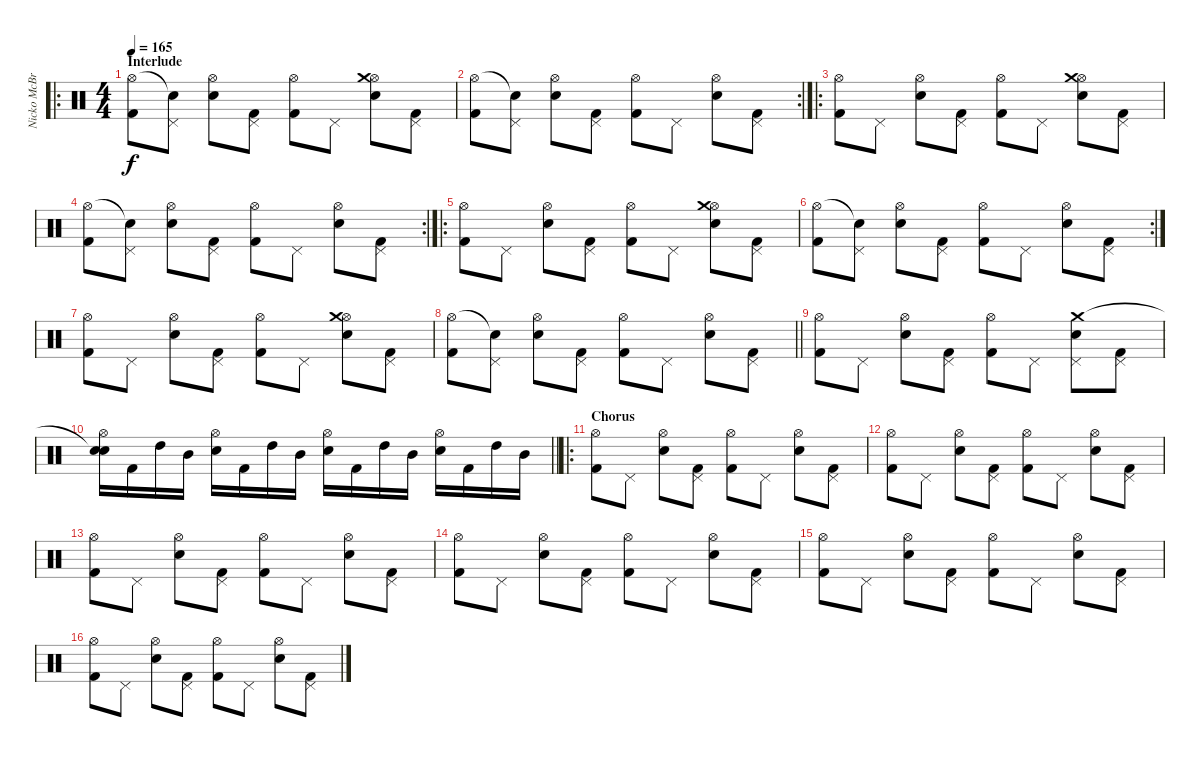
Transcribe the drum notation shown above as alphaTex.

\track ("Nicko McBrain" "Nicko McBr") {instrument percussion}
\staff {score}
\articulation defaults
\ro
\ts (4 4)
\section ("" "Interlude")
\tempo 165
\clef neutral
\ks c
("Kick (hit) 2" "Hi-Hat (open)").8{dy f} ("Pedal Hi-Hat (hit)" "Snare (hit)"{t}).8 ("Snare (hit) 2" "Hi-Hat (open)").8 ("Kick (hit) 2" "Pedal Hi-Hat (hit)").8 ("Kick (hit) 2" "Hi-Hat (open)").8 "Pedal Hi-Hat (hit)".8 ("Snare (hit) 2" "Hi-Hat (open)" "Crash medium (hit)").8 ("Kick (hit) 2" "Pedal Hi-Hat (hit)").8 |
\rc 2
("Kick (hit) 2" "Hi-Hat (open)").8 ("Pedal Hi-Hat (hit)" "Snare (hit)"{t}).8 ("Snare (hit) 2" "Hi-Hat (open)").8 ("Kick (hit) 2" "Pedal Hi-Hat (hit)").8 ("Kick (hit) 2" "Hi-Hat (open)").8 "Pedal Hi-Hat (hit)".8 ("Snare (hit) 2" "Hi-Hat (open)").8 ("Kick (hit) 2" "Pedal Hi-Hat (hit)").8 |
\ro
("Kick (hit) 2" "Hi-Hat (open)").8 "Pedal Hi-Hat (hit)".8 ("Snare (hit) 2" "Hi-Hat (open)").8 ("Kick (hit) 2" "Pedal Hi-Hat (hit)").8 ("Kick (hit) 2" "Hi-Hat (open)").8 "Pedal Hi-Hat (hit)".8 ("Snare (hit) 2" "Hi-Hat (open)" "Crash medium (hit)").8 ("Kick (hit) 2" "Pedal Hi-Hat (hit)").8 |
\rc 2
("Kick (hit) 2" "Hi-Hat (open)").8 ("Pedal Hi-Hat (hit)" "Snare (hit)"{t}).8 ("Snare (hit) 2" "Hi-Hat (open)").8 ("Kick (hit) 2" "Pedal Hi-Hat (hit)").8 ("Kick (hit) 2" "Hi-Hat (open)").8 "Pedal Hi-Hat (hit)".8 ("Snare (hit) 2" "Hi-Hat (open)").8 ("Kick (hit) 2" "Pedal Hi-Hat (hit)").8 |
\ro
("Kick (hit) 2" "Hi-Hat (open)").8 "Pedal Hi-Hat (hit)".8 ("Snare (hit) 2" "Hi-Hat (open)").8 ("Kick (hit) 2" "Pedal Hi-Hat (hit)").8 ("Kick (hit) 2" "Hi-Hat (open)").8 "Pedal Hi-Hat (hit)".8 ("Snare (hit) 2" "Hi-Hat (open)" "Crash medium (hit)").8 ("Kick (hit) 2" "Pedal Hi-Hat (hit)").8 |
\rc 2
("Kick (hit) 2" "Hi-Hat (open)").8 ("Pedal Hi-Hat (hit)" "Snare (hit)"{t}).8 ("Snare (hit) 2" "Hi-Hat (open)").8 ("Kick (hit) 2" "Pedal Hi-Hat (hit)").8 ("Kick (hit) 2" "Hi-Hat (open)").8 "Pedal Hi-Hat (hit)".8 ("Snare (hit) 2" "Hi-Hat (open)").8 ("Kick (hit) 2" "Pedal Hi-Hat (hit)").8 |
("Kick (hit) 2" "Hi-Hat (open)").8 "Pedal Hi-Hat (hit)".8 ("Snare (hit) 2" "Hi-Hat (open)").8 ("Kick (hit) 2" "Pedal Hi-Hat (hit)").8 ("Kick (hit) 2" "Hi-Hat (open)").8 "Pedal Hi-Hat (hit)".8 ("Snare (hit) 2" "Hi-Hat (open)" "Crash medium (hit)").8 ("Kick (hit) 2" "Pedal Hi-Hat (hit)").8 |
\barLineRight lightlight
("Kick (hit) 2" "Hi-Hat (open)").8 ("Pedal Hi-Hat (hit)" "Snare (hit)"{t}).8 ("Snare (hit) 2" "Hi-Hat (open)").8 ("Kick (hit) 2" "Pedal Hi-Hat (hit)").8 ("Kick (hit) 2" "Hi-Hat (open)").8 "Pedal Hi-Hat (hit)".8 ("Snare (hit) 2" "Hi-Hat (open)").8 ("Kick (hit) 2" "Pedal Hi-Hat (hit)").8 |
("Kick (hit) 2" "Hi-Hat (open)").8 "Pedal Hi-Hat (hit)".8 ("Snare (hit) 2" "Hi-Hat (open)").8 ("Kick (hit) 2" "Pedal Hi-Hat (hit)").8 ("Kick (hit) 2" "Hi-Hat (open)").8 "Pedal Hi-Hat (hit)".8 ("Snare (hit) 2" "Pedal Hi-Hat (hit)" "Crash medium (hit)").8 ("Kick (hit) 2" "Pedal Hi-Hat (hit)").8 |
\barLineRight lightlight
("Snare (hit) 2" "Hi-Hat (open)" "Snare (hit)"{t}).16 "Kick (hit) 2".16 "High Tom (hit)".16 "Mid Tom (hit)".16 ("Snare (hit) 2" "Hi-Hat (open)").16 "Kick (hit) 2".16 "High Tom (hit)".16 "Mid Tom (hit)".16 ("Snare (hit) 2" "Hi-Hat (open)").16 "Kick (hit) 2".16 "High Tom (hit)".16 "Mid Tom (hit)".16 ("Snare (hit) 2" "Hi-Hat (open)").16 "Kick (hit) 2".16 "High Tom (hit)".16 "Mid Tom (hit)".16 |
\ro
\section ("" "Chorus")
("Kick (hit) 2" "Hi-Hat (open)").8 "Pedal Hi-Hat (hit)".8 ("Snare (hit) 2" "Hi-Hat (open)").8 ("Kick (hit) 2" "Pedal Hi-Hat (hit)").8 ("Kick (hit) 2" "Hi-Hat (open)").8 "Pedal Hi-Hat (hit)".8 ("Snare (hit) 2" "Hi-Hat (open)").8 ("Kick (hit) 2" "Pedal Hi-Hat (hit)").8 |
("Kick (hit) 2" "Hi-Hat (open)").8 "Pedal Hi-Hat (hit)".8 ("Snare (hit) 2" "Hi-Hat (open)").8 ("Kick (hit) 2" "Pedal Hi-Hat (hit)").8 ("Kick (hit) 2" "Hi-Hat (open)").8 "Pedal Hi-Hat (hit)".8 ("Snare (hit) 2" "Hi-Hat (open)").8 ("Kick (hit) 2" "Pedal Hi-Hat (hit)").8 |
("Kick (hit) 2" "Hi-Hat (open)").8 "Pedal Hi-Hat (hit)".8 ("Snare (hit) 2" "Hi-Hat (open)").8 ("Kick (hit) 2" "Pedal Hi-Hat (hit)").8 ("Kick (hit) 2" "Hi-Hat (open)").8 "Pedal Hi-Hat (hit)".8 ("Snare (hit) 2" "Hi-Hat (open)").8 ("Kick (hit) 2" "Pedal Hi-Hat (hit)").8 |
("Kick (hit) 2" "Hi-Hat (open)").8 "Pedal Hi-Hat (hit)".8 ("Snare (hit) 2" "Hi-Hat (open)").8 ("Kick (hit) 2" "Pedal Hi-Hat (hit)").8 ("Kick (hit) 2" "Hi-Hat (open)").8 "Pedal Hi-Hat (hit)".8 ("Snare (hit) 2" "Hi-Hat (open)").8 ("Kick (hit) 2" "Pedal Hi-Hat (hit)").8 |
("Kick (hit) 2" "Hi-Hat (open)").8 "Pedal Hi-Hat (hit)".8 ("Snare (hit) 2" "Hi-Hat (open)").8 ("Kick (hit) 2" "Pedal Hi-Hat (hit)").8 ("Kick (hit) 2" "Hi-Hat (open)").8 "Pedal Hi-Hat (hit)".8 ("Snare (hit) 2" "Hi-Hat (open)").8 ("Kick (hit) 2" "Pedal Hi-Hat (hit)").8 |
("Kick (hit) 2" "Hi-Hat (open)").8 "Pedal Hi-Hat (hit)".8 ("Snare (hit) 2" "Hi-Hat (open)").8 ("Kick (hit) 2" "Pedal Hi-Hat (hit)").8 ("Kick (hit) 2" "Hi-Hat (open)").8 "Pedal Hi-Hat (hit)".8 ("Snare (hit) 2" "Hi-Hat (open)").8 ("Kick (hit) 2" "Pedal Hi-Hat (hit)").8
